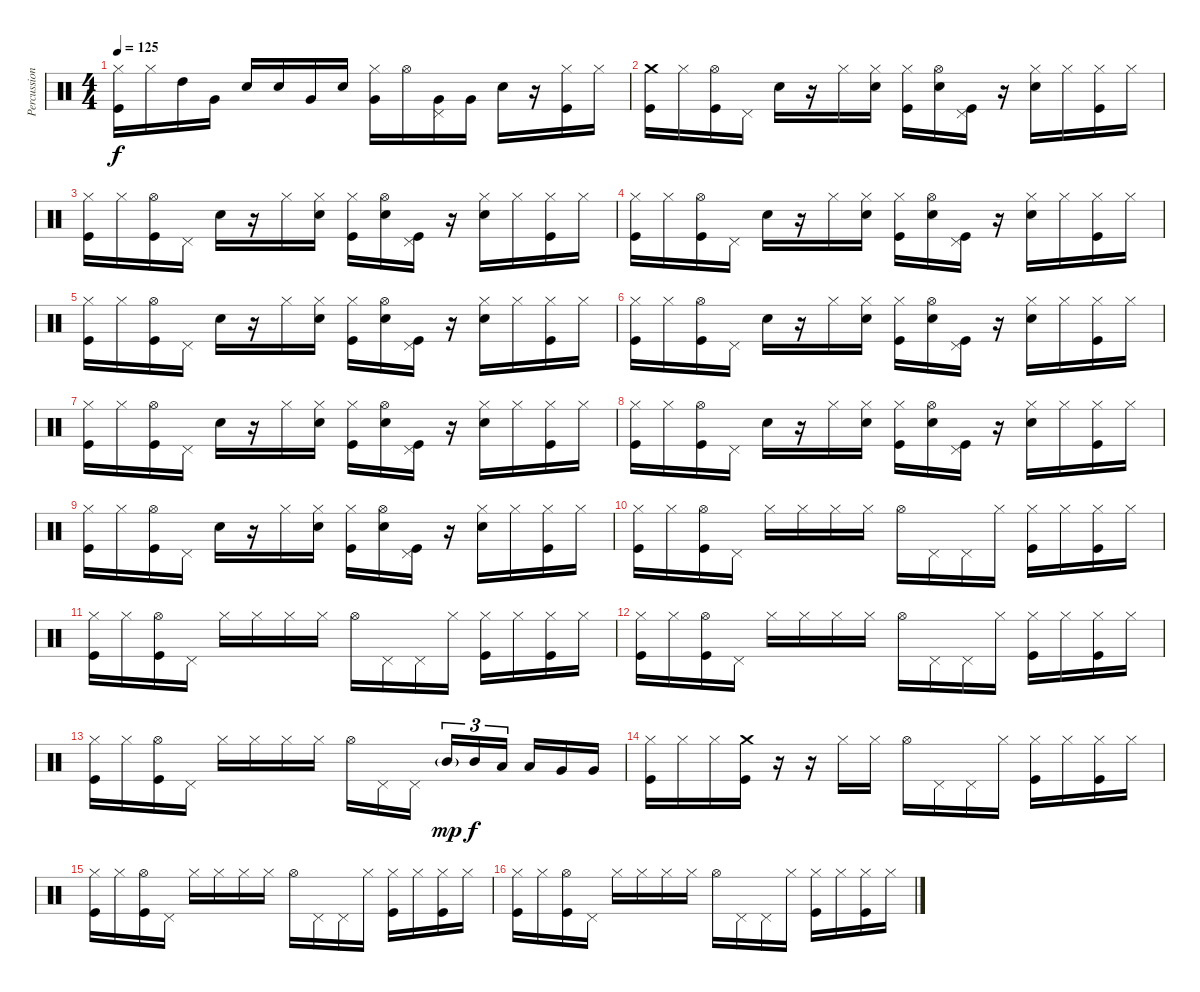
\track ("Percussion" "Percussion") {instrument percussion}
\staff {score}
\articulation defaults
\ts (4 4)
\tempo 125
\clef neutral
\ks c
("Hi-Hat (closed)" "Kick (hit)").16{dy f} "Hi-Hat (closed)".16 "High Tom (hit)".16 "Very Low Tom (hit)".16 "Electric Snare (hit)".16 "Electric Snare (hit)".16 "Very Low Tom (hit)".16 "Electric Snare (hit)".16 ("Hi-Hat (closed)" "Very Low Tom (hit)").16 "Hi-Hat (open)".16 ("Pedal Hi-Hat (hit)" "Very Low Tom (hit)").16 "Very Low Tom (hit)".16 "Electric Snare (hit)".16 r.16 ("Hi-Hat (closed)" "Kick (hit)").16 "Hi-Hat (closed)".16 |
("Crash medium (hit)" "Kick (hit)").16 "Hi-Hat (closed)".16 ("Hi-Hat (open)" "Kick (hit)").16 "Pedal Hi-Hat (hit)".16 "Electric Snare (hit)".16 r.16 "Hi-Hat (closed)".16 ("Hi-Hat (closed)" "Electric Snare (hit)").16 ("Hi-Hat (closed)" "Kick (hit)").16 ("Hi-Hat (open)" "Electric Snare (hit)").16 ("Pedal Hi-Hat (hit)" "Kick (hit)").16 r.16 ("Hi-Hat (closed)" "Electric Snare (hit)").16 "Hi-Hat (closed)".16 ("Hi-Hat (closed)" "Kick (hit)").16 "Hi-Hat (closed)".16 |
("Hi-Hat (closed)" "Kick (hit)").16 "Hi-Hat (closed)".16 ("Hi-Hat (open)" "Kick (hit)").16 "Pedal Hi-Hat (hit)".16 "Electric Snare (hit)".16 r.16 "Hi-Hat (closed)".16 ("Hi-Hat (closed)" "Electric Snare (hit)").16 ("Hi-Hat (closed)" "Kick (hit)").16 ("Hi-Hat (open)" "Electric Snare (hit)").16 ("Pedal Hi-Hat (hit)" "Kick (hit)").16 r.16 ("Hi-Hat (closed)" "Electric Snare (hit)").16 "Hi-Hat (closed)".16 ("Hi-Hat (closed)" "Kick (hit)").16 "Hi-Hat (closed)".16 |
("Hi-Hat (closed)" "Kick (hit)").16 "Hi-Hat (closed)".16 ("Hi-Hat (open)" "Kick (hit)").16 "Pedal Hi-Hat (hit)".16 "Electric Snare (hit)".16 r.16 "Hi-Hat (closed)".16 ("Hi-Hat (closed)" "Electric Snare (hit)").16 ("Hi-Hat (closed)" "Kick (hit)").16 ("Hi-Hat (open)" "Electric Snare (hit)").16 ("Pedal Hi-Hat (hit)" "Kick (hit)").16 r.16 ("Hi-Hat (closed)" "Electric Snare (hit)").16 "Hi-Hat (closed)".16 ("Hi-Hat (closed)" "Kick (hit)").16 "Hi-Hat (closed)".16 |
("Hi-Hat (closed)" "Kick (hit)").16 "Hi-Hat (closed)".16 ("Hi-Hat (open)" "Kick (hit)").16 "Pedal Hi-Hat (hit)".16 "Electric Snare (hit)".16 r.16 "Hi-Hat (closed)".16 ("Hi-Hat (closed)" "Electric Snare (hit)").16 ("Hi-Hat (closed)" "Kick (hit)").16 ("Hi-Hat (open)" "Electric Snare (hit)").16 ("Pedal Hi-Hat (hit)" "Kick (hit)").16 r.16 ("Hi-Hat (closed)" "Electric Snare (hit)").16 "Hi-Hat (closed)".16 ("Hi-Hat (closed)" "Kick (hit)").16 "Hi-Hat (closed)".16 |
("Hi-Hat (closed)" "Kick (hit)").16 "Hi-Hat (closed)".16 ("Hi-Hat (open)" "Kick (hit)").16 "Pedal Hi-Hat (hit)".16 "Electric Snare (hit)".16 r.16 "Hi-Hat (closed)".16 ("Hi-Hat (closed)" "Electric Snare (hit)").16 ("Hi-Hat (closed)" "Kick (hit)").16 ("Hi-Hat (open)" "Electric Snare (hit)").16 ("Pedal Hi-Hat (hit)" "Kick (hit)").16 r.16 ("Hi-Hat (closed)" "Electric Snare (hit)").16 "Hi-Hat (closed)".16 ("Hi-Hat (closed)" "Kick (hit)").16 "Hi-Hat (closed)".16 |
("Hi-Hat (closed)" "Kick (hit)").16 "Hi-Hat (closed)".16 ("Hi-Hat (open)" "Kick (hit)").16 "Pedal Hi-Hat (hit)".16 "Electric Snare (hit)".16 r.16 "Hi-Hat (closed)".16 ("Hi-Hat (closed)" "Electric Snare (hit)").16 ("Hi-Hat (closed)" "Kick (hit)").16 ("Hi-Hat (open)" "Electric Snare (hit)").16 ("Pedal Hi-Hat (hit)" "Kick (hit)").16 r.16 ("Hi-Hat (closed)" "Electric Snare (hit)").16 "Hi-Hat (closed)".16 ("Hi-Hat (closed)" "Kick (hit)").16 "Hi-Hat (closed)".16 |
("Hi-Hat (closed)" "Kick (hit)").16 "Hi-Hat (closed)".16 ("Hi-Hat (open)" "Kick (hit)").16 "Pedal Hi-Hat (hit)".16 "Electric Snare (hit)".16 r.16 "Hi-Hat (closed)".16 ("Hi-Hat (closed)" "Electric Snare (hit)").16 ("Hi-Hat (closed)" "Kick (hit)").16 ("Hi-Hat (open)" "Electric Snare (hit)").16 ("Pedal Hi-Hat (hit)" "Kick (hit)").16 r.16 ("Hi-Hat (closed)" "Electric Snare (hit)").16 "Hi-Hat (closed)".16 ("Hi-Hat (closed)" "Kick (hit)").16 "Hi-Hat (closed)".16 |
("Hi-Hat (closed)" "Kick (hit)").16 "Hi-Hat (closed)".16 ("Hi-Hat (open)" "Kick (hit)").16 "Pedal Hi-Hat (hit)".16 "Electric Snare (hit)".16 r.16 "Hi-Hat (closed)".16 ("Hi-Hat (closed)" "Electric Snare (hit)").16 ("Hi-Hat (closed)" "Kick (hit)").16 ("Hi-Hat (open)" "Electric Snare (hit)").16 ("Pedal Hi-Hat (hit)" "Kick (hit)").16 r.16 ("Hi-Hat (closed)" "Electric Snare (hit)").16 "Hi-Hat (closed)".16 ("Hi-Hat (closed)" "Kick (hit)").16 "Hi-Hat (closed)".16 |
("Hi-Hat (closed)" "Kick (hit)").16 "Hi-Hat (closed)".16 ("Hi-Hat (open)" "Kick (hit)").16 "Pedal Hi-Hat (hit)".16 "Hi-Hat (closed)".16 "Hi-Hat (closed)".16 "Hi-Hat (closed)".16 "Hi-Hat (closed)".16 "Hi-Hat (open)".16 "Pedal Hi-Hat (hit)".16 "Pedal Hi-Hat (hit)".16 "Hi-Hat (closed)".16 ("Hi-Hat (closed)" "Kick (hit)").16 "Hi-Hat (closed)".16 ("Hi-Hat (closed)" "Kick (hit)").16 "Hi-Hat (closed)".16 |
("Hi-Hat (closed)" "Kick (hit)").16 "Hi-Hat (closed)".16 ("Hi-Hat (open)" "Kick (hit)").16 "Pedal Hi-Hat (hit)".16 "Hi-Hat (closed)".16 "Hi-Hat (closed)".16 "Hi-Hat (closed)".16 "Hi-Hat (closed)".16 "Hi-Hat (open)".16 "Pedal Hi-Hat (hit)".16 "Pedal Hi-Hat (hit)".16 "Hi-Hat (closed)".16 ("Hi-Hat (closed)" "Kick (hit)").16 "Hi-Hat (closed)".16 ("Hi-Hat (closed)" "Kick (hit)").16 "Hi-Hat (closed)".16 |
("Hi-Hat (closed)" "Kick (hit)").16 "Hi-Hat (closed)".16 ("Hi-Hat (open)" "Kick (hit)").16 "Pedal Hi-Hat (hit)".16 "Hi-Hat (closed)".16 "Hi-Hat (closed)".16 "Hi-Hat (closed)".16 "Hi-Hat (closed)".16 "Hi-Hat (open)".16 "Pedal Hi-Hat (hit)".16 "Pedal Hi-Hat (hit)".16 "Hi-Hat (closed)".16 ("Hi-Hat (closed)" "Kick (hit)").16 "Hi-Hat (closed)".16 ("Hi-Hat (closed)" "Kick (hit)").16 "Hi-Hat (closed)".16 |
("Hi-Hat (closed)" "Kick (hit)").16 "Hi-Hat (closed)".16 ("Hi-Hat (open)" "Kick (hit)").16 "Pedal Hi-Hat (hit)".16 "Hi-Hat (closed)".16 "Hi-Hat (closed)".16 "Hi-Hat (closed)".16 "Hi-Hat (closed)".16 "Hi-Hat (open)".16 "Pedal Hi-Hat (hit)".16 "Pedal Hi-Hat (hit)".16{beam splitsecondary} "Mid Tom (hit)"{g}.16{tu (3 2) dy mp} "Mid Tom (hit)".16{tu (3 2) dy f} "Low Tom (hit)".16{tu (3 2) beam splitsecondary} "Low Tom (hit)".16 "Very Low Tom (hit)".16 "Very Low Tom (hit)".16 |
("Hi-Hat (closed)" "Kick (hit)").16 "Hi-Hat (closed)".16 "Hi-Hat (closed)".16 ("Crash medium (hit)" "Kick (hit)").16 r.16 r.16 "Hi-Hat (closed)".16 "Hi-Hat (closed)".16 "Hi-Hat (open)".16 "Pedal Hi-Hat (hit)".16 "Pedal Hi-Hat (hit)".16 "Hi-Hat (closed)".16 ("Hi-Hat (closed)" "Kick (hit)").16 "Hi-Hat (closed)".16 ("Hi-Hat (closed)" "Kick (hit)").16 "Hi-Hat (closed)".16 |
("Hi-Hat (closed)" "Kick (hit)").16 "Hi-Hat (closed)".16 ("Hi-Hat (open)" "Kick (hit)").16 "Pedal Hi-Hat (hit)".16 "Hi-Hat (closed)".16 "Hi-Hat (closed)".16 "Hi-Hat (closed)".16 "Hi-Hat (closed)".16 "Hi-Hat (open)".16 "Pedal Hi-Hat (hit)".16 "Pedal Hi-Hat (hit)".16 "Hi-Hat (closed)".16 ("Hi-Hat (closed)" "Kick (hit)").16 "Hi-Hat (closed)".16 ("Hi-Hat (closed)" "Kick (hit)").16 "Hi-Hat (closed)".16 |
("Hi-Hat (closed)" "Kick (hit)").16 "Hi-Hat (closed)".16 ("Hi-Hat (open)" "Kick (hit)").16 "Pedal Hi-Hat (hit)".16 "Hi-Hat (closed)".16 "Hi-Hat (closed)".16 "Hi-Hat (closed)".16 "Hi-Hat (closed)".16 "Hi-Hat (open)".16 "Pedal Hi-Hat (hit)".16 "Pedal Hi-Hat (hit)".16 "Hi-Hat (closed)".16 ("Hi-Hat (closed)" "Kick (hit)").16 "Hi-Hat (closed)".16 ("Hi-Hat (closed)" "Kick (hit)").16 "Hi-Hat (closed)".16
